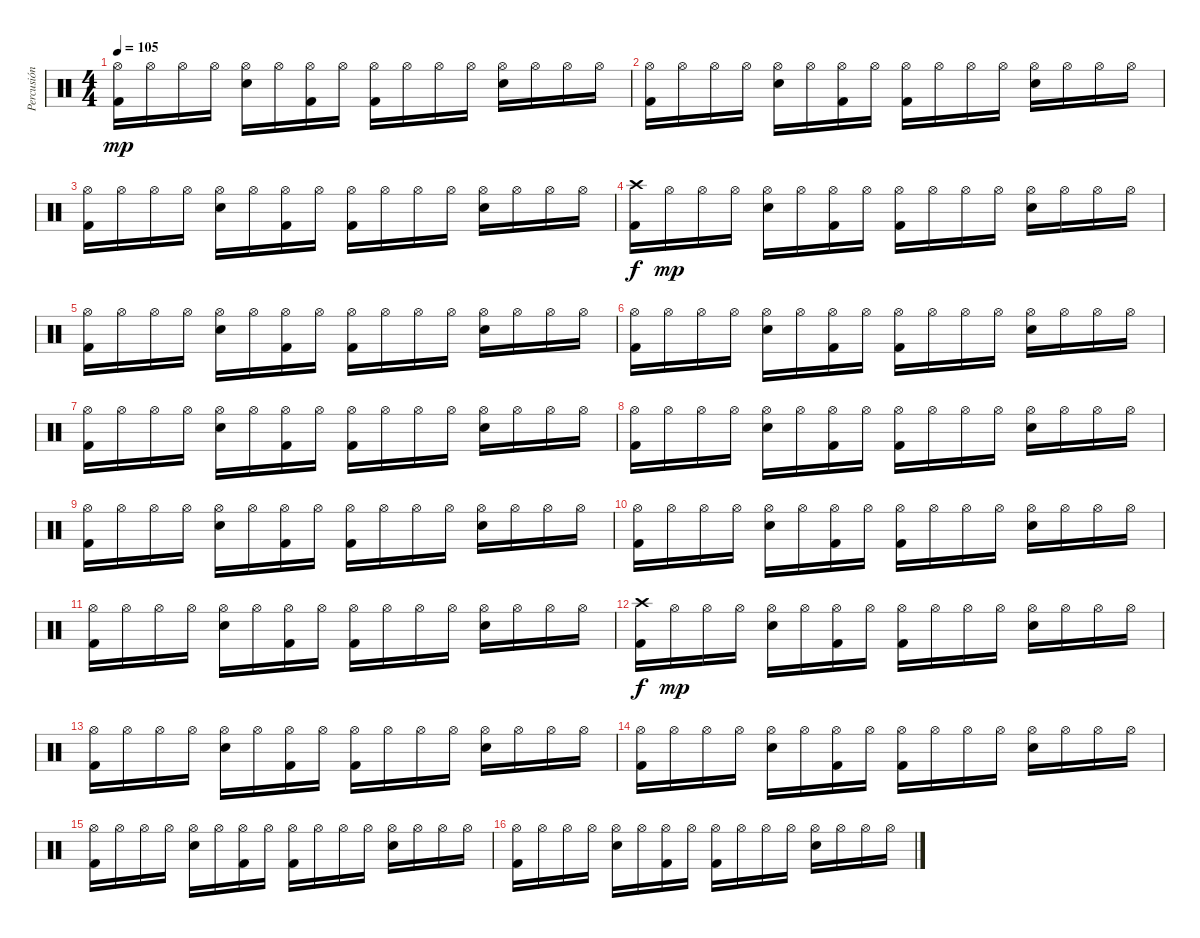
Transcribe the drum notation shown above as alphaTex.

\track ("Percusión" "Percusión") {instrument percussion}
\staff {score}
\articulation defaults
\ts (4 4)
\tempo 105
\clef neutral
\ks c
("Hi-Hat (open)" "Kick (hit) 2").16{dy mp} "Hi-Hat (open)".16 "Hi-Hat (open)".16 "Hi-Hat (open)".16 ("Hi-Hat (open)" "Snare (hit) 2").16 "Hi-Hat (open)".16 ("Hi-Hat (open)" "Kick (hit) 2").16 "Hi-Hat (open)".16 ("Hi-Hat (open)" "Kick (hit) 2").16 "Hi-Hat (open)".16 "Hi-Hat (open)".16 "Hi-Hat (open)".16 ("Hi-Hat (open)" "Snare (hit) 2").16 "Hi-Hat (open)".16 "Hi-Hat (open)".16 "Hi-Hat (open)".16 |
("Hi-Hat (open)" "Kick (hit) 2").16 "Hi-Hat (open)".16 "Hi-Hat (open)".16 "Hi-Hat (open)".16 ("Hi-Hat (open)" "Snare (hit) 2").16 "Hi-Hat (open)".16 ("Hi-Hat (open)" "Kick (hit) 2").16 "Hi-Hat (open)".16 ("Hi-Hat (open)" "Kick (hit) 2").16 "Hi-Hat (open)".16 "Hi-Hat (open)".16 "Hi-Hat (open)".16 ("Hi-Hat (open)" "Snare (hit) 2").16 "Hi-Hat (open)".16 "Hi-Hat (open)".16 "Hi-Hat (open)".16 |
("Hi-Hat (open)" "Kick (hit) 2").16 "Hi-Hat (open)".16 "Hi-Hat (open)".16 "Hi-Hat (open)".16 ("Hi-Hat (open)" "Snare (hit) 2").16 "Hi-Hat (open)".16 ("Hi-Hat (open)" "Kick (hit) 2").16 "Hi-Hat (open)".16 ("Hi-Hat (open)" "Kick (hit) 2").16 "Hi-Hat (open)".16 "Hi-Hat (open)".16 "Hi-Hat (open)".16 ("Hi-Hat (open)" "Snare (hit) 2").16 "Hi-Hat (open)".16 "Hi-Hat (open)".16 "Hi-Hat (open)".16 |
("Crash high (hit)" "Kick (hit) 2").16{dy f} "Hi-Hat (open)".16{dy mp} "Hi-Hat (open)".16 "Hi-Hat (open)".16 ("Hi-Hat (open)" "Snare (hit) 2").16 "Hi-Hat (open)".16 ("Hi-Hat (open)" "Kick (hit) 2").16 "Hi-Hat (open)".16 ("Hi-Hat (open)" "Kick (hit) 2").16 "Hi-Hat (open)".16 "Hi-Hat (open)".16 "Hi-Hat (open)".16 ("Hi-Hat (open)" "Snare (hit) 2").16 "Hi-Hat (open)".16 "Hi-Hat (open)".16 "Hi-Hat (open)".16 |
("Hi-Hat (open)" "Kick (hit) 2").16 "Hi-Hat (open)".16 "Hi-Hat (open)".16 "Hi-Hat (open)".16 ("Hi-Hat (open)" "Snare (hit) 2").16 "Hi-Hat (open)".16 ("Hi-Hat (open)" "Kick (hit) 2").16 "Hi-Hat (open)".16 ("Hi-Hat (open)" "Kick (hit) 2").16 "Hi-Hat (open)".16 "Hi-Hat (open)".16 "Hi-Hat (open)".16 ("Hi-Hat (open)" "Snare (hit) 2").16 "Hi-Hat (open)".16 "Hi-Hat (open)".16 "Hi-Hat (open)".16 |
("Hi-Hat (open)" "Kick (hit) 2").16 "Hi-Hat (open)".16 "Hi-Hat (open)".16 "Hi-Hat (open)".16 ("Hi-Hat (open)" "Snare (hit) 2").16 "Hi-Hat (open)".16 ("Hi-Hat (open)" "Kick (hit) 2").16 "Hi-Hat (open)".16 ("Hi-Hat (open)" "Kick (hit) 2").16 "Hi-Hat (open)".16 "Hi-Hat (open)".16 "Hi-Hat (open)".16 ("Hi-Hat (open)" "Snare (hit) 2").16 "Hi-Hat (open)".16 "Hi-Hat (open)".16 "Hi-Hat (open)".16 |
("Hi-Hat (open)" "Kick (hit) 2").16 "Hi-Hat (open)".16 "Hi-Hat (open)".16 "Hi-Hat (open)".16 ("Hi-Hat (open)" "Snare (hit) 2").16 "Hi-Hat (open)".16 ("Hi-Hat (open)" "Kick (hit) 2").16 "Hi-Hat (open)".16 ("Hi-Hat (open)" "Kick (hit) 2").16 "Hi-Hat (open)".16 "Hi-Hat (open)".16 "Hi-Hat (open)".16 ("Hi-Hat (open)" "Snare (hit) 2").16 "Hi-Hat (open)".16 "Hi-Hat (open)".16 "Hi-Hat (open)".16 |
("Hi-Hat (open)" "Kick (hit) 2").16 "Hi-Hat (open)".16 "Hi-Hat (open)".16 "Hi-Hat (open)".16 ("Hi-Hat (open)" "Snare (hit) 2").16 "Hi-Hat (open)".16 ("Hi-Hat (open)" "Kick (hit) 2").16 "Hi-Hat (open)".16 ("Hi-Hat (open)" "Kick (hit) 2").16 "Hi-Hat (open)".16 "Hi-Hat (open)".16 "Hi-Hat (open)".16 ("Hi-Hat (open)" "Snare (hit) 2").16 "Hi-Hat (open)".16 "Hi-Hat (open)".16 "Hi-Hat (open)".16 |
("Hi-Hat (open)" "Kick (hit) 2").16 "Hi-Hat (open)".16 "Hi-Hat (open)".16 "Hi-Hat (open)".16 ("Hi-Hat (open)" "Snare (hit) 2").16 "Hi-Hat (open)".16 ("Hi-Hat (open)" "Kick (hit) 2").16 "Hi-Hat (open)".16 ("Hi-Hat (open)" "Kick (hit) 2").16 "Hi-Hat (open)".16 "Hi-Hat (open)".16 "Hi-Hat (open)".16 ("Hi-Hat (open)" "Snare (hit) 2").16 "Hi-Hat (open)".16 "Hi-Hat (open)".16 "Hi-Hat (open)".16 |
("Hi-Hat (open)" "Kick (hit) 2").16 "Hi-Hat (open)".16 "Hi-Hat (open)".16 "Hi-Hat (open)".16 ("Hi-Hat (open)" "Snare (hit) 2").16 "Hi-Hat (open)".16 ("Hi-Hat (open)" "Kick (hit) 2").16 "Hi-Hat (open)".16 ("Hi-Hat (open)" "Kick (hit) 2").16 "Hi-Hat (open)".16 "Hi-Hat (open)".16 "Hi-Hat (open)".16 ("Hi-Hat (open)" "Snare (hit) 2").16 "Hi-Hat (open)".16 "Hi-Hat (open)".16 "Hi-Hat (open)".16 |
("Hi-Hat (open)" "Kick (hit) 2").16 "Hi-Hat (open)".16 "Hi-Hat (open)".16 "Hi-Hat (open)".16 ("Hi-Hat (open)" "Snare (hit) 2").16 "Hi-Hat (open)".16 ("Hi-Hat (open)" "Kick (hit) 2").16 "Hi-Hat (open)".16 ("Hi-Hat (open)" "Kick (hit) 2").16 "Hi-Hat (open)".16 "Hi-Hat (open)".16 "Hi-Hat (open)".16 ("Hi-Hat (open)" "Snare (hit) 2").16 "Hi-Hat (open)".16 "Hi-Hat (open)".16 "Hi-Hat (open)".16 |
("Crash high (hit)" "Kick (hit) 2").16{dy f} "Hi-Hat (open)".16{dy mp} "Hi-Hat (open)".16 "Hi-Hat (open)".16 ("Hi-Hat (open)" "Snare (hit) 2").16 "Hi-Hat (open)".16 ("Hi-Hat (open)" "Kick (hit) 2").16 "Hi-Hat (open)".16 ("Hi-Hat (open)" "Kick (hit) 2").16 "Hi-Hat (open)".16 "Hi-Hat (open)".16 "Hi-Hat (open)".16 ("Hi-Hat (open)" "Snare (hit) 2").16 "Hi-Hat (open)".16 "Hi-Hat (open)".16 "Hi-Hat (open)".16 |
("Hi-Hat (open)" "Kick (hit) 2").16 "Hi-Hat (open)".16 "Hi-Hat (open)".16 "Hi-Hat (open)".16 ("Hi-Hat (open)" "Snare (hit) 2").16 "Hi-Hat (open)".16 ("Hi-Hat (open)" "Kick (hit) 2").16 "Hi-Hat (open)".16 ("Hi-Hat (open)" "Kick (hit) 2").16 "Hi-Hat (open)".16 "Hi-Hat (open)".16 "Hi-Hat (open)".16 ("Hi-Hat (open)" "Snare (hit) 2").16 "Hi-Hat (open)".16 "Hi-Hat (open)".16 "Hi-Hat (open)".16 |
("Hi-Hat (open)" "Kick (hit) 2").16 "Hi-Hat (open)".16 "Hi-Hat (open)".16 "Hi-Hat (open)".16 ("Hi-Hat (open)" "Snare (hit) 2").16 "Hi-Hat (open)".16 ("Hi-Hat (open)" "Kick (hit) 2").16 "Hi-Hat (open)".16 ("Hi-Hat (open)" "Kick (hit) 2").16 "Hi-Hat (open)".16 "Hi-Hat (open)".16 "Hi-Hat (open)".16 ("Hi-Hat (open)" "Snare (hit) 2").16 "Hi-Hat (open)".16 "Hi-Hat (open)".16 "Hi-Hat (open)".16 |
("Hi-Hat (open)" "Kick (hit) 2").16 "Hi-Hat (open)".16 "Hi-Hat (open)".16 "Hi-Hat (open)".16 ("Hi-Hat (open)" "Snare (hit) 2").16 "Hi-Hat (open)".16 ("Hi-Hat (open)" "Kick (hit) 2").16 "Hi-Hat (open)".16 ("Hi-Hat (open)" "Kick (hit) 2").16 "Hi-Hat (open)".16 "Hi-Hat (open)".16 "Hi-Hat (open)".16 ("Hi-Hat (open)" "Snare (hit) 2").16 "Hi-Hat (open)".16 "Hi-Hat (open)".16 "Hi-Hat (open)".16 |
("Hi-Hat (open)" "Kick (hit) 2").16 "Hi-Hat (open)".16 "Hi-Hat (open)".16 "Hi-Hat (open)".16 ("Hi-Hat (open)" "Snare (hit) 2").16 "Hi-Hat (open)".16 ("Hi-Hat (open)" "Kick (hit) 2").16 "Hi-Hat (open)".16 ("Hi-Hat (open)" "Kick (hit) 2").16 "Hi-Hat (open)".16 "Hi-Hat (open)".16 "Hi-Hat (open)".16 ("Hi-Hat (open)" "Snare (hit) 2").16 "Hi-Hat (open)".16 "Hi-Hat (open)".16 "Hi-Hat (open)".16
